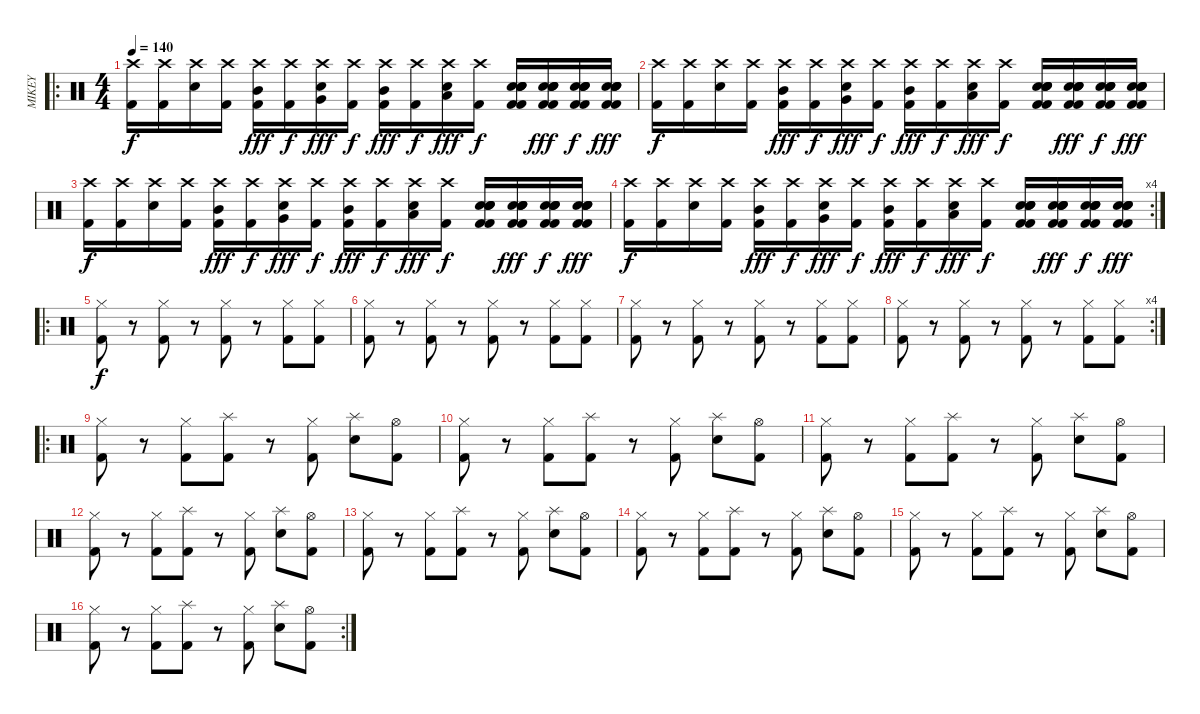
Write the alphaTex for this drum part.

\track ("MIKEY" "MIKEY") {instrument percussion}
\staff {score}
\articulation defaults
\ro
\ts (4 4)
\tempo 140
\clef neutral
\ks c
("Crash high (hit)" "Kick (hit) 2").16{dy f} ("Crash high (hit)" "Kick (hit) 2").16 ("Crash high (hit)" "Snare (hit) 2").16 ("Crash high (hit)" "Kick (hit) 2").16 ("Mid Tom (hit)" "Crash high (hit)" "Kick (hit) 2").16{dy fff} ("Crash high (hit)" "Kick (hit) 2").16{dy f} ("Very Low Tom (hit)" "Crash high (hit)" "Snare (hit) 2").16{dy fff} ("Crash high (hit)" "Kick (hit) 2").16{dy f} ("Mid Tom (hit)" "Crash high (hit)" "Kick (hit) 2").16{dy fff} ("Crash high (hit)" "Kick (hit) 2").16{dy f} ("Low Tom (hit)" "Crash high (hit)" "Snare (hit) 2").16{dy fff} ("Crash high (hit)" "Kick (hit) 2").16{dy f} ("Kick (hit) 2" "Electric Snare (hit)" "Electric Snare (hit)" "Kick (hit) 2" "Snare (hit) 2" "Electric Snare (hit)").16 ("Kick (hit) 2" "Electric Snare (hit)" "Electric Snare (hit)" "Kick (hit) 2" "Snare (hit) 2" "Electric Snare (hit)").16{dy fff} ("Kick (hit) 2" "Electric Snare (hit)" "Electric Snare (hit)" "Kick (hit) 2" "Snare (hit) 2" "Electric Snare (hit)").16{dy f} ("Kick (hit) 2" "Electric Snare (hit)" "Electric Snare (hit)" "Kick (hit) 2" "Snare (hit) 2" "Electric Snare (hit)").16{dy fff} |
("Crash high (hit)" "Kick (hit) 2").16{dy f} ("Crash high (hit)" "Kick (hit) 2").16 ("Crash high (hit)" "Snare (hit) 2").16 ("Crash high (hit)" "Kick (hit) 2").16 ("Mid Tom (hit)" "Crash high (hit)" "Kick (hit) 2").16{dy fff} ("Crash high (hit)" "Kick (hit) 2").16{dy f} ("Very Low Tom (hit)" "Crash high (hit)" "Snare (hit) 2").16{dy fff} ("Crash high (hit)" "Kick (hit) 2").16{dy f} ("Mid Tom (hit)" "Crash high (hit)" "Kick (hit) 2").16{dy fff} ("Crash high (hit)" "Kick (hit) 2").16{dy f} ("Low Tom (hit)" "Crash high (hit)" "Snare (hit) 2").16{dy fff} ("Crash high (hit)" "Kick (hit) 2").16{dy f} ("Kick (hit) 2" "Electric Snare (hit)" "Electric Snare (hit)" "Kick (hit) 2" "Snare (hit) 2" "Electric Snare (hit)").16 ("Kick (hit) 2" "Electric Snare (hit)" "Electric Snare (hit)" "Kick (hit) 2" "Snare (hit) 2" "Electric Snare (hit)").16{dy fff} ("Kick (hit) 2" "Electric Snare (hit)" "Electric Snare (hit)" "Kick (hit) 2" "Snare (hit) 2" "Electric Snare (hit)").16{dy f} ("Kick (hit) 2" "Electric Snare (hit)" "Electric Snare (hit)" "Kick (hit) 2" "Snare (hit) 2" "Electric Snare (hit)").16{dy fff} |
("Crash high (hit)" "Kick (hit) 2").16{dy f} ("Crash high (hit)" "Kick (hit) 2").16 ("Crash high (hit)" "Snare (hit) 2").16 ("Crash high (hit)" "Kick (hit) 2").16 ("Mid Tom (hit)" "Crash high (hit)" "Kick (hit) 2").16{dy fff} ("Crash high (hit)" "Kick (hit) 2").16{dy f} ("Very Low Tom (hit)" "Crash high (hit)" "Snare (hit) 2").16{dy fff} ("Crash high (hit)" "Kick (hit) 2").16{dy f} ("Mid Tom (hit)" "Crash high (hit)" "Kick (hit) 2").16{dy fff} ("Crash high (hit)" "Kick (hit) 2").16{dy f} ("Low Tom (hit)" "Crash high (hit)" "Snare (hit) 2").16{dy fff} ("Crash high (hit)" "Kick (hit) 2").16{dy f} ("Kick (hit) 2" "Electric Snare (hit)" "Electric Snare (hit)" "Kick (hit) 2" "Snare (hit) 2" "Electric Snare (hit)").16 ("Kick (hit) 2" "Electric Snare (hit)" "Electric Snare (hit)" "Kick (hit) 2" "Snare (hit) 2" "Electric Snare (hit)").16{dy fff} ("Kick (hit) 2" "Electric Snare (hit)" "Electric Snare (hit)" "Kick (hit) 2" "Snare (hit) 2" "Electric Snare (hit)").16{dy f} ("Kick (hit) 2" "Electric Snare (hit)" "Electric Snare (hit)" "Kick (hit) 2" "Snare (hit) 2" "Electric Snare (hit)").16{dy fff} |
\rc 4
("Crash high (hit)" "Kick (hit) 2").16{dy f} ("Crash high (hit)" "Kick (hit) 2").16 ("Crash high (hit)" "Snare (hit) 2").16 ("Crash high (hit)" "Kick (hit) 2").16 ("Mid Tom (hit)" "Crash high (hit)" "Kick (hit) 2").16{dy fff} ("Crash high (hit)" "Kick (hit) 2").16{dy f} ("Very Low Tom (hit)" "Crash high (hit)" "Snare (hit) 2").16{dy fff} ("Crash high (hit)" "Kick (hit) 2").16{dy f} ("Mid Tom (hit)" "Crash high (hit)" "Kick (hit) 2").16{dy fff} ("Crash high (hit)" "Kick (hit) 2").16{dy f} ("Low Tom (hit)" "Crash high (hit)" "Snare (hit) 2").16{dy fff} ("Crash high (hit)" "Kick (hit) 2").16{dy f} ("Kick (hit) 2" "Electric Snare (hit)" "Electric Snare (hit)" "Kick (hit) 2" "Snare (hit) 2" "Electric Snare (hit)").16 ("Kick (hit) 2" "Electric Snare (hit)" "Electric Snare (hit)" "Kick (hit) 2" "Snare (hit) 2" "Electric Snare (hit)").16{dy fff} ("Kick (hit) 2" "Electric Snare (hit)" "Electric Snare (hit)" "Kick (hit) 2" "Snare (hit) 2" "Electric Snare (hit)").16{dy f} ("Kick (hit) 2" "Electric Snare (hit)" "Electric Snare (hit)" "Kick (hit) 2" "Snare (hit) 2" "Electric Snare (hit)").16{dy fff} |
\ro
("Kick (hit) 2" "Hi-Hat (closed)").8{dy f} r.8 ("Kick (hit) 2" "Hi-Hat (closed)").8 r.8 ("Kick (hit) 2" "Hi-Hat (closed)").8 r.8 ("Kick (hit) 2" "Hi-Hat (closed)").8 ("Kick (hit) 2" "Hi-Hat (closed)").8 |
("Kick (hit) 2" "Hi-Hat (closed)").8 r.8 ("Kick (hit) 2" "Hi-Hat (closed)").8 r.8 ("Kick (hit) 2" "Hi-Hat (closed)").8 r.8 ("Kick (hit) 2" "Hi-Hat (closed)").8 ("Kick (hit) 2" "Hi-Hat (closed)").8 |
("Kick (hit) 2" "Hi-Hat (closed)").8 r.8 ("Kick (hit) 2" "Hi-Hat (closed)").8 r.8 ("Kick (hit) 2" "Hi-Hat (closed)").8 r.8 ("Kick (hit) 2" "Hi-Hat (closed)").8 ("Kick (hit) 2" "Hi-Hat (closed)").8 |
\rc 4
("Kick (hit) 2" "Hi-Hat (closed)").8 r.8 ("Kick (hit) 2" "Hi-Hat (closed)").8 r.8 ("Kick (hit) 2" "Hi-Hat (closed)").8 r.8 ("Kick (hit) 2" "Hi-Hat (closed)").8 ("Kick (hit) 2" "Hi-Hat (closed)").8 |
\ro
("Kick (hit) 2" "Hi-Hat (closed)").8 r.8 ("Kick (hit) 2" "Hi-Hat (closed)").8 ("Kick (hit) 2" "Splash (hit)").8 r.8 ("Kick (hit) 2" "Hi-Hat (closed)").8 ("Electric Snare (hit)" "Splash (hit)").8 ("Kick (hit) 2" "Hi-Hat (open)").8 |
("Kick (hit) 2" "Hi-Hat (closed)").8 r.8 ("Kick (hit) 2" "Hi-Hat (closed)").8 ("Kick (hit) 2" "Splash (hit)").8 r.8 ("Kick (hit) 2" "Hi-Hat (closed)").8 ("Electric Snare (hit)" "Splash (hit)").8 ("Kick (hit) 2" "Hi-Hat (open)").8 |
("Kick (hit) 2" "Hi-Hat (closed)").8 r.8 ("Kick (hit) 2" "Hi-Hat (closed)").8 ("Kick (hit) 2" "Splash (hit)").8 r.8 ("Kick (hit) 2" "Hi-Hat (closed)").8 ("Electric Snare (hit)" "Splash (hit)").8 ("Kick (hit) 2" "Hi-Hat (open)").8 |
("Kick (hit) 2" "Hi-Hat (closed)").8 r.8 ("Kick (hit) 2" "Hi-Hat (closed)").8 ("Kick (hit) 2" "Splash (hit)").8 r.8 ("Kick (hit) 2" "Hi-Hat (closed)").8 ("Electric Snare (hit)" "Splash (hit)").8 ("Kick (hit) 2" "Hi-Hat (open)").8 |
("Kick (hit) 2" "Hi-Hat (closed)").8 r.8 ("Kick (hit) 2" "Hi-Hat (closed)").8 ("Kick (hit) 2" "Splash (hit)").8 r.8 ("Kick (hit) 2" "Hi-Hat (closed)").8 ("Electric Snare (hit)" "Splash (hit)").8 ("Kick (hit) 2" "Hi-Hat (open)").8 |
("Kick (hit) 2" "Hi-Hat (closed)").8 r.8 ("Kick (hit) 2" "Hi-Hat (closed)").8 ("Kick (hit) 2" "Splash (hit)").8 r.8 ("Kick (hit) 2" "Hi-Hat (closed)").8 ("Electric Snare (hit)" "Splash (hit)").8 ("Kick (hit) 2" "Hi-Hat (open)").8 |
("Kick (hit) 2" "Hi-Hat (closed)").8 r.8 ("Kick (hit) 2" "Hi-Hat (closed)").8 ("Kick (hit) 2" "Splash (hit)").8 r.8 ("Kick (hit) 2" "Hi-Hat (closed)").8 ("Electric Snare (hit)" "Splash (hit)").8 ("Kick (hit) 2" "Hi-Hat (open)").8 |
\rc 2
("Kick (hit) 2" "Hi-Hat (closed)").8 r.8 ("Kick (hit) 2" "Hi-Hat (closed)").8 ("Kick (hit) 2" "Splash (hit)").8 r.8 ("Kick (hit) 2" "Hi-Hat (closed)").8 ("Electric Snare (hit)" "Splash (hit)").8 ("Kick (hit) 2" "Hi-Hat (open)").8
